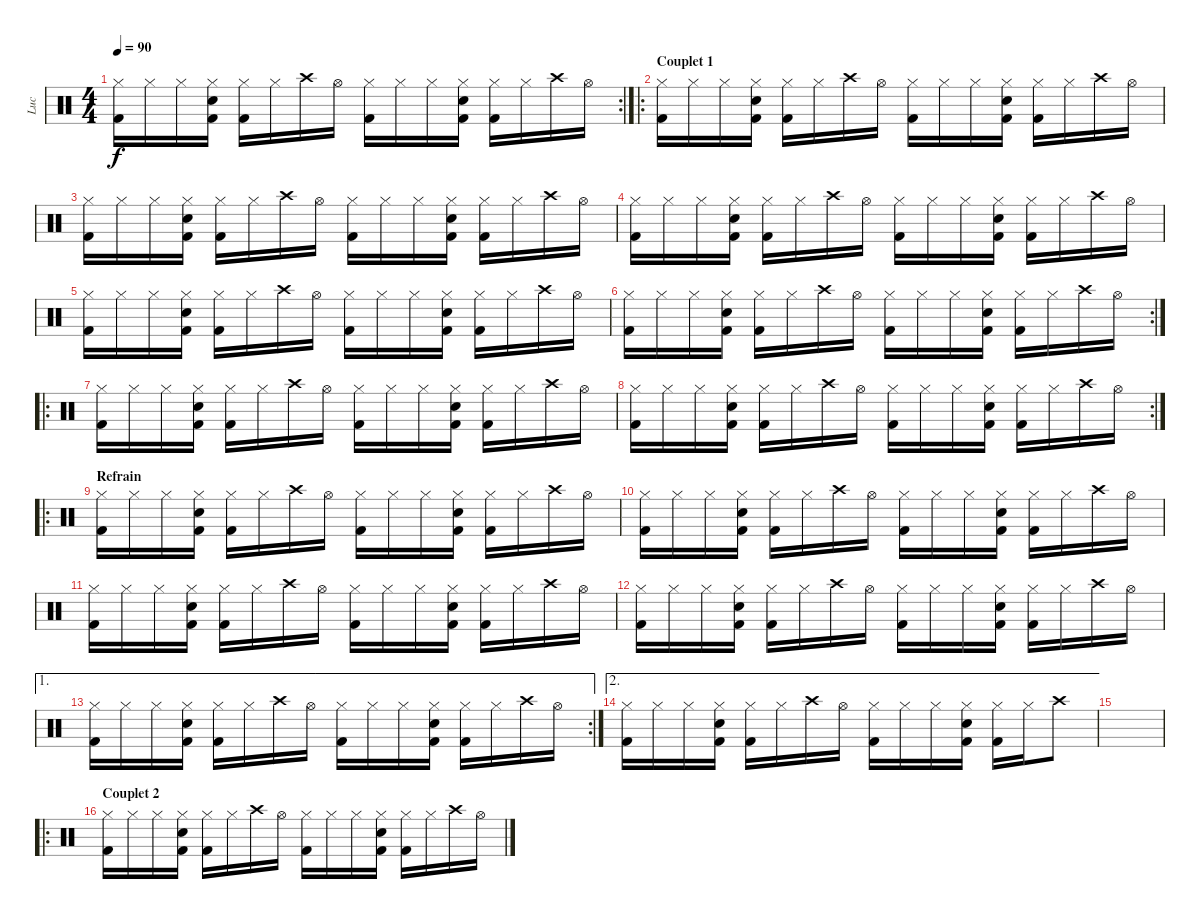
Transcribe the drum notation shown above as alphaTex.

\track ("Luc" "Luc") {instrument percussion}
\staff {score}
\articulation defaults
\rc 2
\ts (4 4)
\tempo 90
\clef neutral
\ks c
("Hi-Hat (closed)" "Kick (hit) 2").16{dy f} "Hi-Hat (closed)".16 "Hi-Hat (closed)".16 ("Hi-Hat (closed)" "Snare (hit) 2" "Kick (hit) 2").16 ("Hi-Hat (closed)" "Kick (hit) 2").16 "Hi-Hat (closed)".16 "Crash high (hit)".16 "Hi-Hat (open)".16 ("Hi-Hat (closed)" "Kick (hit) 2").16 "Hi-Hat (closed)".16 "Hi-Hat (closed)".16 ("Hi-Hat (closed)" "Snare (hit) 2" "Kick (hit) 2").16 ("Hi-Hat (closed)" "Kick (hit) 2").16 "Hi-Hat (closed)".16 "Crash high (hit)".16 "Hi-Hat (open)".16 |
\ro
\section ("" "Couplet 1")
("Hi-Hat (closed)" "Kick (hit) 2").16 "Hi-Hat (closed)".16 "Hi-Hat (closed)".16 ("Hi-Hat (closed)" "Snare (hit) 2" "Kick (hit) 2").16 ("Hi-Hat (closed)" "Kick (hit) 2").16 "Hi-Hat (closed)".16 "Crash high (hit)".16 "Hi-Hat (open)".16 ("Hi-Hat (closed)" "Kick (hit) 2").16 "Hi-Hat (closed)".16 "Hi-Hat (closed)".16 ("Hi-Hat (closed)" "Snare (hit) 2" "Kick (hit) 2").16 ("Hi-Hat (closed)" "Kick (hit) 2").16 "Hi-Hat (closed)".16 "Crash high (hit)".16 "Hi-Hat (open)".16 |
("Hi-Hat (closed)" "Kick (hit) 2").16 "Hi-Hat (closed)".16 "Hi-Hat (closed)".16 ("Hi-Hat (closed)" "Snare (hit) 2" "Kick (hit) 2").16 ("Hi-Hat (closed)" "Kick (hit) 2").16 "Hi-Hat (closed)".16 "Crash high (hit)".16 "Hi-Hat (open)".16 ("Hi-Hat (closed)" "Kick (hit) 2").16 "Hi-Hat (closed)".16 "Hi-Hat (closed)".16 ("Hi-Hat (closed)" "Snare (hit) 2" "Kick (hit) 2").16 ("Hi-Hat (closed)" "Kick (hit) 2").16 "Hi-Hat (closed)".16 "Crash high (hit)".16 "Hi-Hat (open)".16 |
("Hi-Hat (closed)" "Kick (hit) 2").16 "Hi-Hat (closed)".16 "Hi-Hat (closed)".16 ("Hi-Hat (closed)" "Snare (hit) 2" "Kick (hit) 2").16 ("Hi-Hat (closed)" "Kick (hit) 2").16 "Hi-Hat (closed)".16 "Crash high (hit)".16 "Hi-Hat (open)".16 ("Hi-Hat (closed)" "Kick (hit) 2").16 "Hi-Hat (closed)".16 "Hi-Hat (closed)".16 ("Hi-Hat (closed)" "Snare (hit) 2" "Kick (hit) 2").16 ("Hi-Hat (closed)" "Kick (hit) 2").16 "Hi-Hat (closed)".16 "Crash high (hit)".16 "Hi-Hat (open)".16 |
("Hi-Hat (closed)" "Kick (hit) 2").16 "Hi-Hat (closed)".16 "Hi-Hat (closed)".16 ("Hi-Hat (closed)" "Snare (hit) 2" "Kick (hit) 2").16 ("Hi-Hat (closed)" "Kick (hit) 2").16 "Hi-Hat (closed)".16 "Crash high (hit)".16 "Hi-Hat (open)".16 ("Hi-Hat (closed)" "Kick (hit) 2").16 "Hi-Hat (closed)".16 "Hi-Hat (closed)".16 ("Hi-Hat (closed)" "Snare (hit) 2" "Kick (hit) 2").16 ("Hi-Hat (closed)" "Kick (hit) 2").16 "Hi-Hat (closed)".16 "Crash high (hit)".16 "Hi-Hat (open)".16 |
\rc 2
("Hi-Hat (closed)" "Kick (hit) 2").16 "Hi-Hat (closed)".16 "Hi-Hat (closed)".16 ("Hi-Hat (closed)" "Snare (hit) 2" "Kick (hit) 2").16 ("Hi-Hat (closed)" "Kick (hit) 2").16 "Hi-Hat (closed)".16 "Crash high (hit)".16 "Hi-Hat (open)".16 ("Hi-Hat (closed)" "Kick (hit) 2").16 "Hi-Hat (closed)".16 "Hi-Hat (closed)".16 ("Hi-Hat (closed)" "Snare (hit) 2" "Kick (hit) 2").16 ("Hi-Hat (closed)" "Kick (hit) 2").16 "Hi-Hat (closed)".16 "Crash high (hit)".16 "Hi-Hat (open)".16 |
\ro
("Hi-Hat (closed)" "Kick (hit) 2").16 "Hi-Hat (closed)".16 "Hi-Hat (closed)".16 ("Hi-Hat (closed)" "Snare (hit) 2" "Kick (hit) 2").16 ("Hi-Hat (closed)" "Kick (hit) 2").16 "Hi-Hat (closed)".16 "Crash high (hit)".16 "Hi-Hat (open)".16 ("Hi-Hat (closed)" "Kick (hit) 2").16 "Hi-Hat (closed)".16 "Hi-Hat (closed)".16 ("Hi-Hat (closed)" "Snare (hit) 2" "Kick (hit) 2").16 ("Hi-Hat (closed)" "Kick (hit) 2").16 "Hi-Hat (closed)".16 "Crash high (hit)".16 "Hi-Hat (open)".16 |
\rc 2
("Hi-Hat (closed)" "Kick (hit) 2").16 "Hi-Hat (closed)".16 "Hi-Hat (closed)".16 ("Hi-Hat (closed)" "Snare (hit) 2" "Kick (hit) 2").16 ("Hi-Hat (closed)" "Kick (hit) 2").16 "Hi-Hat (closed)".16 "Crash high (hit)".16 "Hi-Hat (open)".16 ("Hi-Hat (closed)" "Kick (hit) 2").16 "Hi-Hat (closed)".16 "Hi-Hat (closed)".16 ("Hi-Hat (closed)" "Snare (hit) 2" "Kick (hit) 2").16 ("Hi-Hat (closed)" "Kick (hit) 2").16 "Hi-Hat (closed)".16 "Crash high (hit)".16 "Hi-Hat (open)".16 |
\ro
\section ("" "Refrain")
("Hi-Hat (closed)" "Kick (hit) 2").16 "Hi-Hat (closed)".16 "Hi-Hat (closed)".16 ("Hi-Hat (closed)" "Snare (hit) 2" "Kick (hit) 2").16 ("Hi-Hat (closed)" "Kick (hit) 2").16 "Hi-Hat (closed)".16 "Crash high (hit)".16 "Hi-Hat (open)".16 ("Hi-Hat (closed)" "Kick (hit) 2").16 "Hi-Hat (closed)".16 "Hi-Hat (closed)".16 ("Hi-Hat (closed)" "Snare (hit) 2" "Kick (hit) 2").16 ("Hi-Hat (closed)" "Kick (hit) 2").16 "Hi-Hat (closed)".16 "Crash high (hit)".16 "Hi-Hat (open)".16 |
("Hi-Hat (closed)" "Kick (hit) 2").16 "Hi-Hat (closed)".16 "Hi-Hat (closed)".16 ("Hi-Hat (closed)" "Snare (hit) 2" "Kick (hit) 2").16 ("Hi-Hat (closed)" "Kick (hit) 2").16 "Hi-Hat (closed)".16 "Crash high (hit)".16 "Hi-Hat (open)".16 ("Hi-Hat (closed)" "Kick (hit) 2").16 "Hi-Hat (closed)".16 "Hi-Hat (closed)".16 ("Hi-Hat (closed)" "Snare (hit) 2" "Kick (hit) 2").16 ("Hi-Hat (closed)" "Kick (hit) 2").16 "Hi-Hat (closed)".16 "Crash high (hit)".16 "Hi-Hat (open)".16 |
("Hi-Hat (closed)" "Kick (hit) 2").16 "Hi-Hat (closed)".16 "Hi-Hat (closed)".16 ("Hi-Hat (closed)" "Snare (hit) 2" "Kick (hit) 2").16 ("Hi-Hat (closed)" "Kick (hit) 2").16 "Hi-Hat (closed)".16 "Crash high (hit)".16 "Hi-Hat (open)".16 ("Hi-Hat (closed)" "Kick (hit) 2").16 "Hi-Hat (closed)".16 "Hi-Hat (closed)".16 ("Hi-Hat (closed)" "Snare (hit) 2" "Kick (hit) 2").16 ("Hi-Hat (closed)" "Kick (hit) 2").16 "Hi-Hat (closed)".16 "Crash high (hit)".16 "Hi-Hat (open)".16 |
("Hi-Hat (closed)" "Kick (hit) 2").16 "Hi-Hat (closed)".16 "Hi-Hat (closed)".16 ("Hi-Hat (closed)" "Snare (hit) 2" "Kick (hit) 2").16 ("Hi-Hat (closed)" "Kick (hit) 2").16 "Hi-Hat (closed)".16 "Crash high (hit)".16 "Hi-Hat (open)".16 ("Hi-Hat (closed)" "Kick (hit) 2").16 "Hi-Hat (closed)".16 "Hi-Hat (closed)".16 ("Hi-Hat (closed)" "Snare (hit) 2" "Kick (hit) 2").16 ("Hi-Hat (closed)" "Kick (hit) 2").16 "Hi-Hat (closed)".16 "Crash high (hit)".16 "Hi-Hat (open)".16 |
\ae 1
\rc 2
("Hi-Hat (closed)" "Kick (hit) 2").16 "Hi-Hat (closed)".16 "Hi-Hat (closed)".16 ("Hi-Hat (closed)" "Snare (hit) 2" "Kick (hit) 2").16 ("Hi-Hat (closed)" "Kick (hit) 2").16 "Hi-Hat (closed)".16 "Crash high (hit)".16 "Hi-Hat (open)".16 ("Hi-Hat (closed)" "Kick (hit) 2").16 "Hi-Hat (closed)".16 "Hi-Hat (closed)".16 ("Hi-Hat (closed)" "Snare (hit) 2" "Kick (hit) 2").16 ("Hi-Hat (closed)" "Kick (hit) 2").16 "Hi-Hat (closed)".16 "Crash high (hit)".16 "Hi-Hat (open)".16 |
\ae 2
("Hi-Hat (closed)" "Kick (hit) 2").16 "Hi-Hat (closed)".16 "Hi-Hat (closed)".16 ("Hi-Hat (closed)" "Snare (hit) 2" "Kick (hit) 2").16 ("Hi-Hat (closed)" "Kick (hit) 2").16 "Hi-Hat (closed)".16 "Crash high (hit)".16 "Hi-Hat (open)".16 ("Hi-Hat (closed)" "Kick (hit) 2").16 "Hi-Hat (closed)".16 "Hi-Hat (closed)".16 ("Hi-Hat (closed)" "Snare (hit) 2" "Kick (hit) 2").16 ("Hi-Hat (closed)" "Kick (hit) 2").16 "Hi-Hat (closed)".16 "Crash high (hit)".8 |
|
\ro
\section ("" "Couplet 2")
("Hi-Hat (closed)" "Kick (hit) 2").16 "Hi-Hat (closed)".16 "Hi-Hat (closed)".16 ("Hi-Hat (closed)" "Snare (hit) 2" "Kick (hit) 2").16 ("Hi-Hat (closed)" "Kick (hit) 2").16 "Hi-Hat (closed)".16 "Crash high (hit)".16 "Hi-Hat (open)".16 ("Hi-Hat (closed)" "Kick (hit) 2").16 "Hi-Hat (closed)".16 "Hi-Hat (closed)".16 ("Hi-Hat (closed)" "Snare (hit) 2" "Kick (hit) 2").16 ("Hi-Hat (closed)" "Kick (hit) 2").16 "Hi-Hat (closed)".16 "Crash high (hit)".16 "Hi-Hat (open)".16
